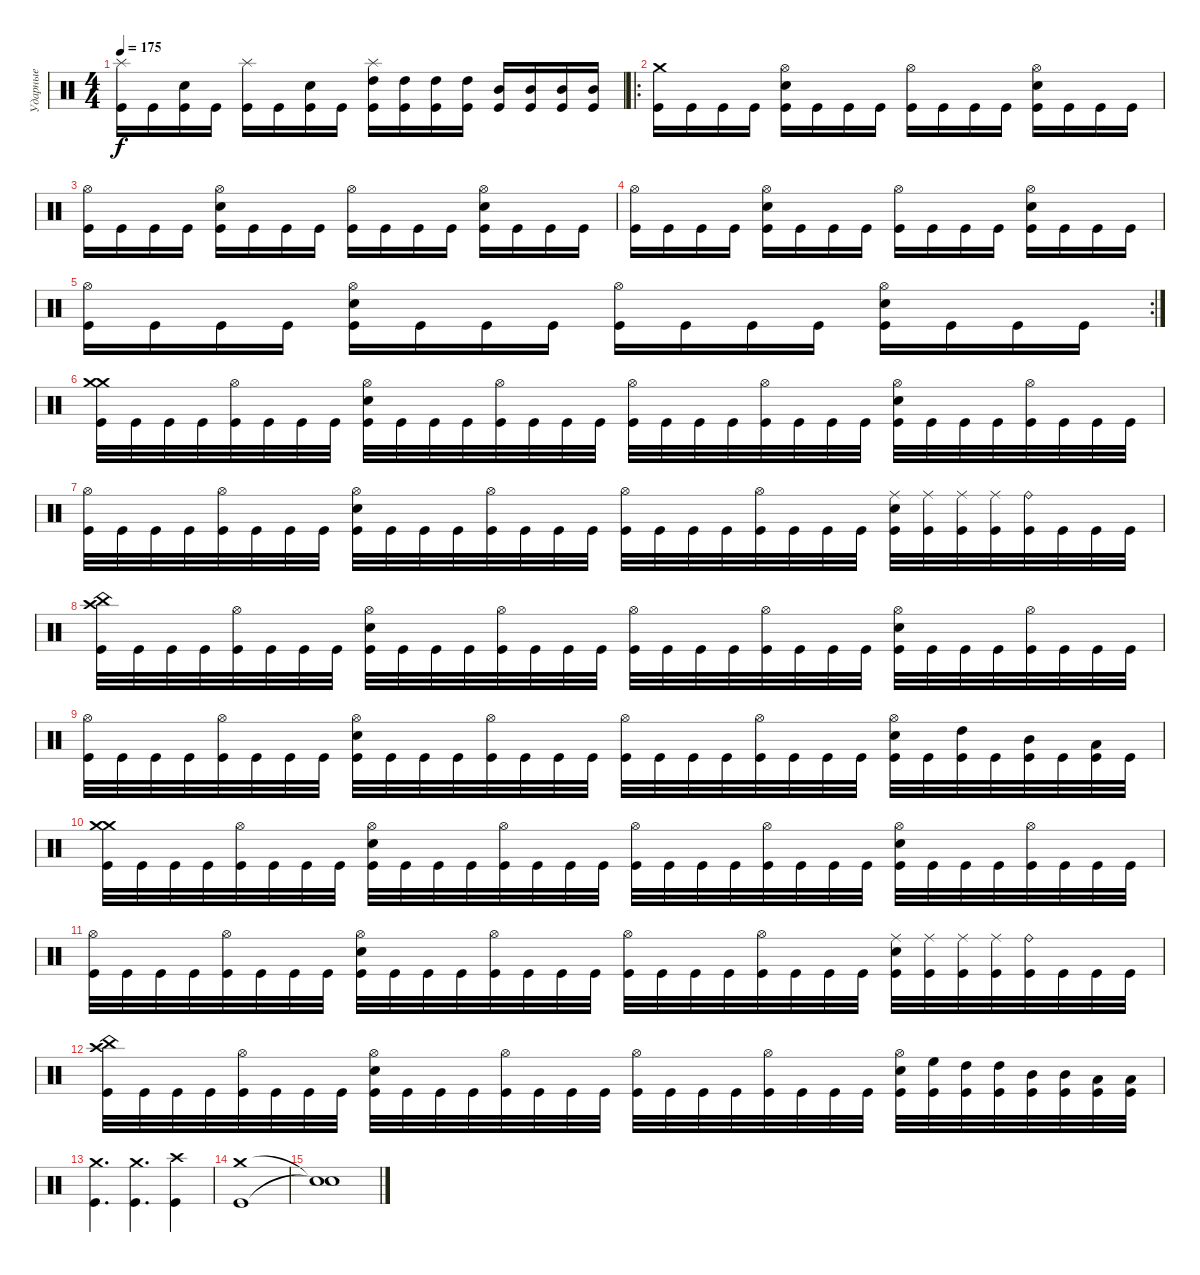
\track ("Ударные" "Ударные") {instrument percussion}
\staff {score}
\articulation defaults
\ts (4 4)
\tempo 175
\clef neutral
\ks c
("Splash (hit)" "Kick (hit)").16{dy f} "Kick (hit)".16 ("Snare (hit) 2" "Kick (hit)").16 "Kick (hit)".16 ("Splash (hit)" "Kick (hit)").16 "Kick (hit)".16 ("Snare (hit) 2" "Kick (hit)").16 "Kick (hit)".16 ("High Tom (hit)" "Splash (hit)" "Kick (hit)").16 ("High Tom (hit)" "Kick (hit)").16 ("High Tom (hit)" "Kick (hit)").16 ("High Tom (hit)" "Kick (hit)").16 ("Mid Tom (hit)" "Kick (hit)").16 ("Mid Tom (hit)" "Kick (hit)").16 ("Mid Tom (hit)" "Kick (hit)").16 ("Mid Tom (hit)" "Kick (hit)").16 |
\ro
("Crash medium (hit)" "Kick (hit)").16 "Kick (hit)".16 "Kick (hit)".16 "Kick (hit)".16 ("Snare (hit) 2" "Hi-Hat (open)" "Kick (hit)").16 "Kick (hit)".16 "Kick (hit)".16 "Kick (hit)".16 ("Hi-Hat (open)" "Kick (hit)").16 "Kick (hit)".16 "Kick (hit)".16 "Kick (hit)".16 ("Snare (hit) 2" "Hi-Hat (open)" "Kick (hit)").16 "Kick (hit)".16 "Kick (hit)".16 "Kick (hit)".16 |
("Hi-Hat (open)" "Kick (hit)").16 "Kick (hit)".16 "Kick (hit)".16 "Kick (hit)".16 ("Snare (hit) 2" "Hi-Hat (open)" "Kick (hit)").16 "Kick (hit)".16 "Kick (hit)".16 "Kick (hit)".16 ("Hi-Hat (open)" "Kick (hit)").16 "Kick (hit)".16 "Kick (hit)".16 "Kick (hit)".16 ("Snare (hit) 2" "Hi-Hat (open)" "Kick (hit)").16 "Kick (hit)".16 "Kick (hit)".16 "Kick (hit)".16 |
("Hi-Hat (open)" "Kick (hit)").16 "Kick (hit)".16 "Kick (hit)".16 "Kick (hit)".16 ("Snare (hit) 2" "Hi-Hat (open)" "Kick (hit)").16 "Kick (hit)".16 "Kick (hit)".16 "Kick (hit)".16 ("Hi-Hat (open)" "Kick (hit)").16 "Kick (hit)".16 "Kick (hit)".16 "Kick (hit)".16 ("Snare (hit) 2" "Hi-Hat (open)" "Kick (hit)").16 "Kick (hit)".16 "Kick (hit)".16 "Kick (hit)".16 |
\rc 2
("Hi-Hat (open)" "Kick (hit)").16 "Kick (hit)".16 "Kick (hit)".16 "Kick (hit)".16 ("Snare (hit) 2" "Hi-Hat (open)" "Kick (hit)").16 "Kick (hit)".16 "Kick (hit)".16 "Kick (hit)".16 ("Hi-Hat (open)" "Kick (hit)").16 "Kick (hit)".16 "Kick (hit)".16 "Kick (hit)".16 ("Snare (hit) 2" "Hi-Hat (open)" "Kick (hit)").16 "Kick (hit)".16 "Kick (hit)".16 "Kick (hit)".16 |
("Crash medium (hit)" "Crash medium (hit)" "Kick (hit)").32 "Kick (hit)".32 "Kick (hit)".32 "Kick (hit)".32 ("Hi-Hat (open)" "Kick (hit)").32 "Kick (hit)".32 "Kick (hit)".32 "Kick (hit)".32 ("Snare (hit) 2" "Hi-Hat (open)" "Kick (hit)").32 "Kick (hit)".32 "Kick (hit)".32 "Kick (hit)".32 ("Hi-Hat (open)" "Kick (hit)").32 "Kick (hit)".32 "Kick (hit)".32 "Kick (hit)".32 ("Hi-Hat (open)" "Kick (hit)").32 "Kick (hit)".32 "Kick (hit)".32 "Kick (hit)".32 ("Hi-Hat (open)" "Kick (hit)").32 "Kick (hit)".32 "Kick (hit)".32 "Kick (hit)".32 ("Snare (hit) 2" "Hi-Hat (open)" "Kick (hit)").32 "Kick (hit)".32 "Kick (hit)".32 "Kick (hit)".32 ("Hi-Hat (open)" "Kick (hit)").32 "Kick (hit)".32 "Kick (hit)".32 "Kick (hit)".32 |
("Hi-Hat (open)" "Kick (hit)").32 "Kick (hit)".32 "Kick (hit)".32 "Kick (hit)".32 ("Hi-Hat (open)" "Kick (hit)").32 "Kick (hit)".32 "Kick (hit)".32 "Kick (hit)".32 ("Snare (hit) 2" "Hi-Hat (open)" "Kick (hit)").32 "Kick (hit)".32 "Kick (hit)".32 "Kick (hit)".32 ("Hi-Hat (open)" "Kick (hit)").32 "Kick (hit)".32 "Kick (hit)".32 "Kick (hit)".32 ("Hi-Hat (open)" "Kick (hit)").32 "Kick (hit)".32 "Kick (hit)".32 "Kick (hit)".32 ("Hi-Hat (open)" "Kick (hit)").32 "Kick (hit)".32 "Kick (hit)".32 "Kick (hit)".32 ("Snare (hit) 2" "Ride (middle)" "Kick (hit)").32 ("Ride (middle)" "Kick (hit)").32 ("Ride (middle)" "Kick (hit)").32 ("Ride (middle)" "Kick (hit)").32 ("Ride (bell)" "Kick (hit)").32 "Kick (hit)".32 "Kick (hit)".32 "Kick (hit)".32 |
("Crash high (hit)" "China (hit)" "Kick (hit)").32 "Kick (hit)".32 "Kick (hit)".32 "Kick (hit)".32 ("Hi-Hat (open)" "Kick (hit)").32 "Kick (hit)".32 "Kick (hit)".32 "Kick (hit)".32 ("Snare (hit) 2" "Hi-Hat (open)" "Kick (hit)").32 "Kick (hit)".32 "Kick (hit)".32 "Kick (hit)".32 ("Hi-Hat (open)" "Kick (hit)").32 "Kick (hit)".32 "Kick (hit)".32 "Kick (hit)".32 ("Hi-Hat (open)" "Kick (hit)").32 "Kick (hit)".32 "Kick (hit)".32 "Kick (hit)".32 ("Hi-Hat (open)" "Kick (hit)").32 "Kick (hit)".32 "Kick (hit)".32 "Kick (hit)".32 ("Snare (hit) 2" "Hi-Hat (open)" "Kick (hit)").32 "Kick (hit)".32 "Kick (hit)".32 "Kick (hit)".32 ("Hi-Hat (open)" "Kick (hit)").32 "Kick (hit)".32 "Kick (hit)".32 "Kick (hit)".32 |
("Hi-Hat (open)" "Kick (hit)").32 "Kick (hit)".32 "Kick (hit)".32 "Kick (hit)".32 ("Hi-Hat (open)" "Kick (hit)").32 "Kick (hit)".32 "Kick (hit)".32 "Kick (hit)".32 ("Snare (hit) 2" "Hi-Hat (open)" "Kick (hit)").32 "Kick (hit)".32 "Kick (hit)".32 "Kick (hit)".32 ("Hi-Hat (open)" "Kick (hit)").32 "Kick (hit)".32 "Kick (hit)".32 "Kick (hit)".32 ("Hi-Hat (open)" "Kick (hit)").32 "Kick (hit)".32 "Kick (hit)".32 "Kick (hit)".32 ("Hi-Hat (open)" "Kick (hit)").32 "Kick (hit)".32 "Kick (hit)".32 "Kick (hit)".32 ("Snare (hit) 2" "Hi-Hat (open)" "Kick (hit)").32 "Kick (hit)".32 ("High Tom (hit)" "Kick (hit)").32 "Kick (hit)".32 ("Mid Tom (hit)" "Kick (hit)").32 "Kick (hit)".32 ("Low Tom (hit)" "Kick (hit)").32 "Kick (hit)".32 |
("Crash medium (hit)" "Crash medium (hit)" "Kick (hit)").32 "Kick (hit)".32 "Kick (hit)".32 "Kick (hit)".32 ("Hi-Hat (open)" "Kick (hit)").32 "Kick (hit)".32 "Kick (hit)".32 "Kick (hit)".32 ("Snare (hit) 2" "Hi-Hat (open)" "Kick (hit)").32 "Kick (hit)".32 "Kick (hit)".32 "Kick (hit)".32 ("Hi-Hat (open)" "Kick (hit)").32 "Kick (hit)".32 "Kick (hit)".32 "Kick (hit)".32 ("Hi-Hat (open)" "Kick (hit)").32 "Kick (hit)".32 "Kick (hit)".32 "Kick (hit)".32 ("Hi-Hat (open)" "Kick (hit)").32 "Kick (hit)".32 "Kick (hit)".32 "Kick (hit)".32 ("Snare (hit) 2" "Hi-Hat (open)" "Kick (hit)").32 "Kick (hit)".32 "Kick (hit)".32 "Kick (hit)".32 ("Hi-Hat (open)" "Kick (hit)").32 "Kick (hit)".32 "Kick (hit)".32 "Kick (hit)".32 |
("Hi-Hat (open)" "Kick (hit)").32 "Kick (hit)".32 "Kick (hit)".32 "Kick (hit)".32 ("Hi-Hat (open)" "Kick (hit)").32 "Kick (hit)".32 "Kick (hit)".32 "Kick (hit)".32 ("Snare (hit) 2" "Hi-Hat (open)" "Kick (hit)").32 "Kick (hit)".32 "Kick (hit)".32 "Kick (hit)".32 ("Hi-Hat (open)" "Kick (hit)").32 "Kick (hit)".32 "Kick (hit)".32 "Kick (hit)".32 ("Hi-Hat (open)" "Kick (hit)").32 "Kick (hit)".32 "Kick (hit)".32 "Kick (hit)".32 ("Hi-Hat (open)" "Kick (hit)").32 "Kick (hit)".32 "Kick (hit)".32 "Kick (hit)".32 ("Snare (hit) 2" "Ride (middle)" "Kick (hit)").32 ("Ride (middle)" "Kick (hit)").32 ("Ride (middle)" "Kick (hit)").32 ("Ride (middle)" "Kick (hit)").32 ("Ride (bell)" "Kick (hit)").32 "Kick (hit)".32 "Kick (hit)".32 "Kick (hit)".32 |
("Crash high (hit)" "China (hit)" "Kick (hit)").32 "Kick (hit)".32 "Kick (hit)".32 "Kick (hit)".32 ("Hi-Hat (open)" "Kick (hit)").32 "Kick (hit)".32 "Kick (hit)".32 "Kick (hit)".32 ("Snare (hit) 2" "Hi-Hat (open)" "Kick (hit)").32 "Kick (hit)".32 "Kick (hit)".32 "Kick (hit)".32 ("Hi-Hat (open)" "Kick (hit)").32 "Kick (hit)".32 "Kick (hit)".32 "Kick (hit)".32 ("Hi-Hat (open)" "Kick (hit)").32 "Kick (hit)".32 "Kick (hit)".32 "Kick (hit)".32 ("Hi-Hat (open)" "Kick (hit)").32 "Kick (hit)".32 "Kick (hit)".32 "Kick (hit)".32 ("Snare (hit) 2" "Hi-Hat (open)" "Kick (hit)").32 ("High Floor Tom (hit)" "Kick (hit)").32 ("High Tom (hit)" "Kick (hit)").32 ("High Tom (hit)" "Kick (hit)").32 ("Mid Tom (hit)" "Kick (hit)").32 ("Mid Tom (hit)" "Kick (hit)").32 ("Low Tom (hit)" "Kick (hit)").32 ("Low Tom (hit)" "Kick (hit)").32 |
("Crash medium (hit)" "Kick (hit)").4{d} ("Crash medium (hit)" "Kick (hit)").4{d} ("Crash high (hit)" "Kick (hit)").4 |
("Crash medium (hit)" "Kick (hit)").1 |
("Snare (hit)"{t} "Snare (hit)"{t}).1
